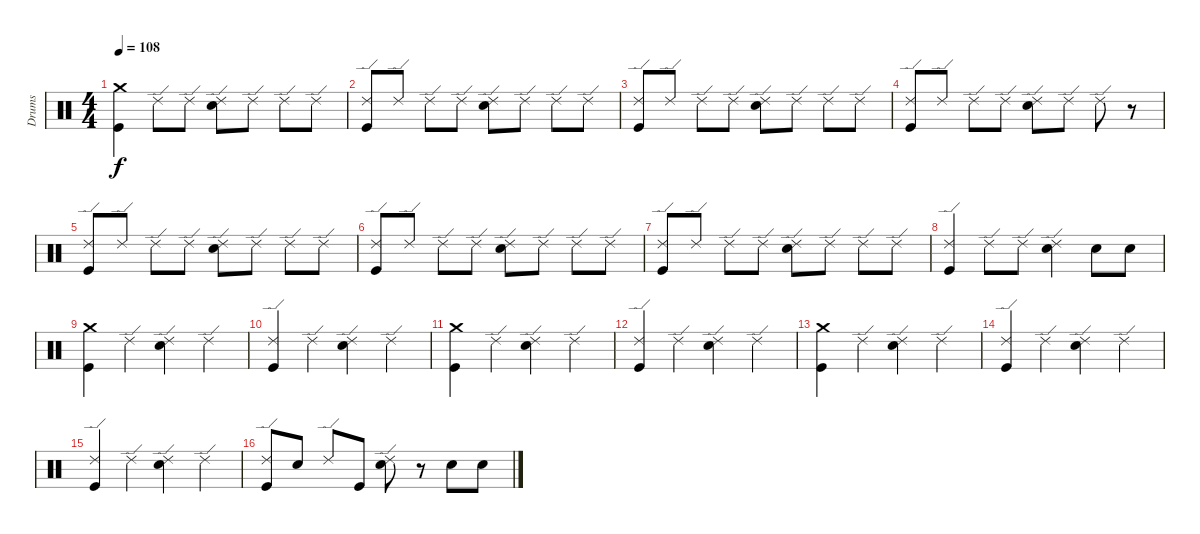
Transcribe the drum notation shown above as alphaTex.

\track ("Drums" "Drums") {instrument percussion}
\staff {score}
\articulation defaults
\ts (4 4)
\tempo 108
\clef neutral
\ks c
("Crash medium (hit)" "Kick (hit)").4{dy f} "Ride (edge) 2".8 "Ride (edge) 2".8 ("Ride (edge) 2" "Snare (hit) 2").8 "Ride (edge) 2".8 "Ride (edge) 2".8 "Ride (edge) 2".8 |
("Ride (edge) 2" "Kick (hit)").8 "Ride (edge) 2".8 "Ride (edge) 2".8 "Ride (edge) 2".8 ("Ride (edge) 2" "Snare (hit) 2").8 "Ride (edge) 2".8 "Ride (edge) 2".8 "Ride (edge) 2".8 |
("Kick (hit)" "Ride (edge) 2").8 "Ride (edge) 2".8 "Ride (edge) 2".8 "Ride (edge) 2".8 ("Snare (hit) 2" "Ride (edge) 2").8 "Ride (edge) 2".8 "Ride (edge) 2".8 "Ride (edge) 2".8 |
("Ride (edge) 2" "Kick (hit)").8 "Ride (edge) 2".8 "Ride (edge) 2".8 "Ride (edge) 2".8 ("Ride (edge) 2" "Snare (hit) 2").8 "Ride (edge) 2".8 "Ride (edge) 2".8 r.8 |
("Kick (hit)" "Ride (edge) 2").8 "Ride (edge) 2".8 "Ride (edge) 2".8 "Ride (edge) 2".8 ("Snare (hit) 2" "Ride (edge) 2").8 "Ride (edge) 2".8 "Ride (edge) 2".8 "Ride (edge) 2".8 |
("Kick (hit)" "Ride (edge) 2").8 "Ride (edge) 2".8 "Ride (edge) 2".8 "Ride (edge) 2".8 ("Snare (hit) 2" "Ride (edge) 2").8 "Ride (edge) 2".8 "Ride (edge) 2".8 "Ride (edge) 2".8 |
("Kick (hit)" "Ride (edge) 2").8 "Ride (edge) 2".8 "Ride (edge) 2".8 "Ride (edge) 2".8 ("Snare (hit) 2" "Ride (edge) 2").8 "Ride (edge) 2".8 "Ride (edge) 2".8 "Ride (edge) 2".8 |
("Ride (edge) 2" "Kick (hit)").4 "Ride (edge) 2".8 "Ride (edge) 2".8 ("Ride (edge) 2" "Snare (hit) 2").4 "Snare (hit) 2".8 "Snare (hit) 2".8 |
("Crash medium (hit)" "Kick (hit)").4 "Ride (edge) 2".4 ("Snare (hit) 2" "Ride (edge) 2").4 "Ride (edge) 2".4 |
("Ride (edge) 2" "Kick (hit)").4 "Ride (edge) 2".4 ("Ride (edge) 2" "Snare (hit) 2").4 "Ride (edge) 2".4 |
("Crash medium (hit)" "Kick (hit)").4 "Ride (edge) 2".4 ("Snare (hit) 2" "Ride (edge) 2").4 "Ride (edge) 2".4 |
("Ride (edge) 2" "Kick (hit)").4 "Ride (edge) 2".4 ("Ride (edge) 2" "Snare (hit) 2").4 "Ride (edge) 2".4 |
("Crash medium (hit)" "Kick (hit)").4 "Ride (edge) 2".4 ("Snare (hit) 2" "Ride (edge) 2").4 "Ride (edge) 2".4 |
("Ride (edge) 2" "Kick (hit)").4 "Ride (edge) 2".4 ("Ride (edge) 2" "Snare (hit) 2").4 "Ride (edge) 2".4 |
("Ride (edge) 2" "Kick (hit)").4 "Ride (edge) 2".4 ("Ride (edge) 2" "Snare (hit) 2").4 "Ride (edge) 2".4 |
("Ride (edge) 2" "Kick (hit)").8 "Snare (hit) 2".8 "Ride (edge) 2".8 "Kick (hit)".8 ("Ride (edge) 2" "Snare (hit) 2").8 r.8 "Snare (hit) 2".8 "Snare (hit) 2".8
